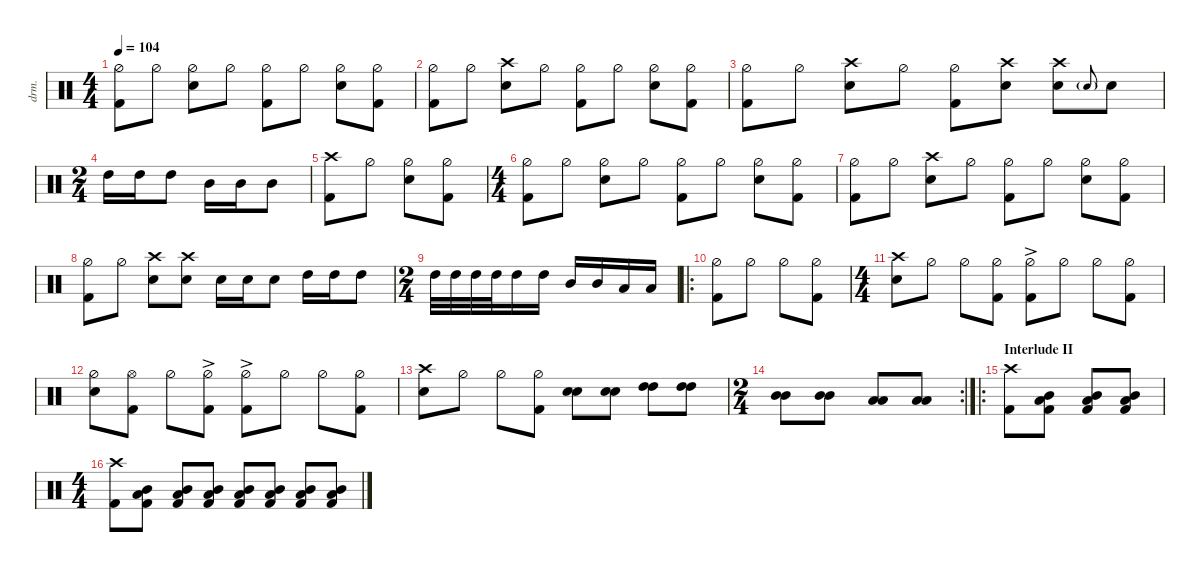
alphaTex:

\defaultSystemsLayout 4
\hideDynamics
\bracketExtendMode nobrackets
\track ("Drums" "drm.") {defaultSystemsLayout 4 multiBarRest instrument percussion}
\staff
\articulation defaults
\ts (4 4)
\beaming (8 2 2 2 2)
\tempo 104
\clef neutral
\ks c
("Kick (hit) 2" "Hi-Hat (half)").8{dy f} "Hi-Hat (half)".8 ("Hi-Hat (half)" "Snare (hit) 2").8 "Hi-Hat (half)".8 ("Kick (hit) 2" "Hi-Hat (half)").8 "Hi-Hat (half)".8 ("Hi-Hat (half)" "Snare (hit) 2").8 ("Hi-Hat (half)" "Kick (hit) 2").8 |
("Kick (hit) 2" "Hi-Hat (half)").8 "Hi-Hat (half)".8 ("Snare (hit) 2" "Crash high (hit)").8 "Hi-Hat (half)".8 ("Kick (hit) 2" "Hi-Hat (half)").8 "Hi-Hat (half)".8 ("Snare (hit) 2" "Hi-Hat (half)").8 ("Kick (hit) 2" "Hi-Hat (half)").8 |
("Kick (hit) 2" "Hi-Hat (half)").8 "Hi-Hat (half)".8 ("Snare (hit) 2" "Crash high (hit)").8 "Hi-Hat (half)".8 ("Kick (hit) 2" "Hi-Hat (half)").8 ("Snare (hit) 2" "Crash high (hit)").8 ("Snare (hit) 2" "Crash high (hit)").8 "Snare (hit) 2"{g}.8{gr onbeat} "Snare (hit) 2".8 |
\ts (2 4)
\beaming (8 2 2)
"High Tom (hit)".16{dy ff} "High Tom (hit)".16 "High Tom (hit)".8 "Mid Tom (hit)".16 "Mid Tom (hit)".16 "Mid Tom (hit)".8 |
("Crash high (hit)" "Kick (hit) 2").8{dy f} "Hi-Hat (half)".8 ("Hi-Hat (half)" "Snare (hit) 2").8 ("Hi-Hat (half)" "Kick (hit) 2").8 |
\ts (4 4)
\beaming (8 2 2 2 2)
("Kick (hit) 2" "Hi-Hat (half)").8 "Hi-Hat (half)".8 ("Hi-Hat (half)" "Snare (hit) 2").8 "Hi-Hat (half)".8 ("Kick (hit) 2" "Hi-Hat (half)").8 "Hi-Hat (half)".8 ("Hi-Hat (half)" "Snare (hit) 2").8 ("Hi-Hat (half)" "Kick (hit) 2").8 |
("Kick (hit) 2" "Hi-Hat (half)").8 "Hi-Hat (half)".8 ("Snare (hit) 2" "Crash high (hit)").8 "Hi-Hat (half)".8 ("Kick (hit) 2" "Hi-Hat (half)").8 "Hi-Hat (half)".8 ("Snare (hit) 2" "Hi-Hat (half)").8 ("Kick (hit) 2" "Hi-Hat (half)").8 |
("Kick (hit) 2" "Hi-Hat (half)").8 "Hi-Hat (half)".8 ("Snare (hit) 2" "Crash high (hit)").8 ("Snare (hit) 2" "Crash high (hit)").8 "Snare (hit) 2".16 "Snare (hit) 2".16 "Snare (hit) 2".8 "High Tom (hit)".16{dy ff} "High Tom (hit)".16 "High Tom (hit)".8 |
\ts (2 4)
\beaming (8 2 2)
"High Tom (hit)".32 "High Tom (hit)".32 "High Tom (hit)".32 "High Tom (hit)".32 "High Tom (hit)".16 "High Tom (hit)".16 "Mid Tom (hit)".16 "Mid Tom (hit)".16 "Low Tom (hit)".16 "Low Tom (hit)".16 |
\ro
("Kick (hit) 2" "Hi-Hat (half)").8{dy f} "Hi-Hat (half)".8 "Hi-Hat (half)".8 ("Hi-Hat (half)" "Kick (hit) 2").8 |
\ts (4 4)
\beaming (8 2 2 2 2)
("Snare (hit) 2" "Crash high (hit)").8 "Hi-Hat (half)".8 "Hi-Hat (half)".8 ("Kick (hit) 2" "Hi-Hat (half)").8 ("Hi-Hat (half)"{ac} "Kick (hit) 2").8 "Hi-Hat (half)".8 "Hi-Hat (half)".8 ("Hi-Hat (half)" "Kick (hit) 2").8 |
("Snare (hit) 2" "Hi-Hat (half)").8 ("Hi-Hat (open)" "Kick (hit) 2").8 "Hi-Hat (half)".8 ("Hi-Hat (half)"{ac} "Kick (hit) 2").8 ("Hi-Hat (half)"{ac} "Kick (hit) 2").8 "Hi-Hat (half)".8 "Hi-Hat (half)".8 ("Hi-Hat (half)" "Kick (hit) 2").8 |
("Snare (hit) 2" "Crash high (hit)").8 "Hi-Hat (half)".8 "Hi-Hat (half)".8 ("Kick (hit) 2" "Hi-Hat (half)").8 ("Snare (hit) 2" "Snare (hit) 2").8 ("Snare (hit) 2" "Snare (hit) 2").8 ("High Tom (hit)" "High Tom (hit)").8{dy ff} ("High Tom (hit)" "High Tom (hit)").8 |
\rc 2
\ts (2 4)
\beaming (8 2 2)
("Mid Tom (hit)" "Mid Tom (hit)").8 ("Mid Tom (hit)" "Mid Tom (hit)").8 ("Low Tom (hit)" "Low Tom (hit)").8 ("Low Tom (hit)" "Low Tom (hit)").8 |
\ro
\section ("" "Interlude II")
("Kick (hit) 2" "Crash high (hit)").8{dy f} ("Low Tom (hit)" "Mid Tom (hit)" "Kick (hit) 2").8 ("Low Tom (hit)" "Mid Tom (hit)" "Kick (hit) 2").8 ("Low Tom (hit)" "Mid Tom (hit)" "Kick (hit) 2").8 |
\ts (4 4)
\beaming (8 2 2 2 2)
("Kick (hit) 2" "Crash high (hit)").8 ("Low Tom (hit)" "Mid Tom (hit)" "Kick (hit) 2").8 ("Low Tom (hit)" "Mid Tom (hit)" "Kick (hit) 2").8 ("Low Tom (hit)" "Mid Tom (hit)" "Kick (hit) 2").8 ("Low Tom (hit)" "Mid Tom (hit)" "Kick (hit) 2").8 ("Low Tom (hit)" "Mid Tom (hit)" "Kick (hit) 2").8 ("Low Tom (hit)" "Mid Tom (hit)" "Kick (hit) 2").8 ("Low Tom (hit)" "Mid Tom (hit)" "Kick (hit) 2").8
